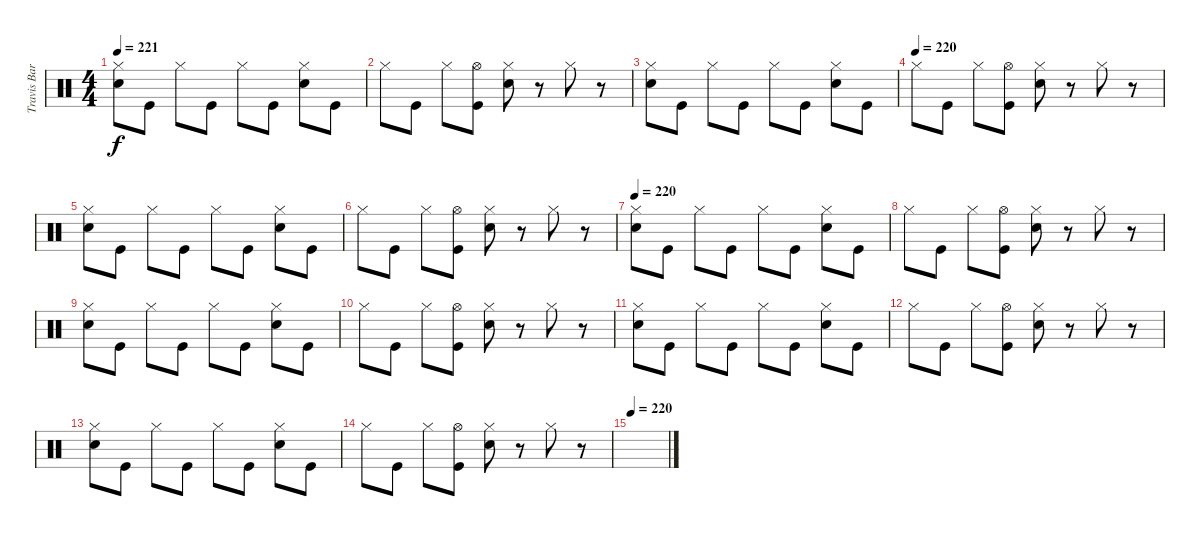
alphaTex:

\track ("Travis Barker" "Travis Bar") {instrument percussion}
\staff {score}
\articulation defaults
\ts (4 4)
\tempo 221
\clef neutral
\ks c
("Electric Snare (hit)" "Hi-Hat (closed)").8{dy f} "Kick (hit)".8 "Hi-Hat (closed)".8 "Kick (hit)".8 "Hi-Hat (closed)".8 "Kick (hit)".8 ("Electric Snare (hit)" "Hi-Hat (closed)").8 "Kick (hit)".8 |
"Hi-Hat (closed)".8 "Kick (hit)".8 "Hi-Hat (closed)".8 ("Kick (hit)" "Hi-Hat (open)").8 ("Electric Snare (hit)" "Hi-Hat (closed)").8 r.8 "Hi-Hat (closed)".8 r.8 |
("Electric Snare (hit)" "Hi-Hat (closed)").8 "Kick (hit)".8 "Hi-Hat (closed)".8 "Kick (hit)".8 "Hi-Hat (closed)".8 "Kick (hit)".8 ("Electric Snare (hit)" "Hi-Hat (closed)").8 "Kick (hit)".8 |
\tempo (220)
"Hi-Hat (closed)".8 "Kick (hit)".8 "Hi-Hat (closed)".8 ("Kick (hit)" "Hi-Hat (open)").8 ("Electric Snare (hit)" "Hi-Hat (closed)").8 r.8 "Hi-Hat (closed)".8 r.8 |
("Electric Snare (hit)" "Hi-Hat (closed)").8 "Kick (hit)".8 "Hi-Hat (closed)".8 "Kick (hit)".8 "Hi-Hat (closed)".8 "Kick (hit)".8 ("Electric Snare (hit)" "Hi-Hat (closed)").8 "Kick (hit)".8 |
"Hi-Hat (closed)".8 "Kick (hit)".8 "Hi-Hat (closed)".8 ("Kick (hit)" "Hi-Hat (open)").8 ("Electric Snare (hit)" "Hi-Hat (closed)").8 r.8 "Hi-Hat (closed)".8 r.8 |
\tempo 220
("Electric Snare (hit)" "Hi-Hat (closed)").8 "Kick (hit)".8 "Hi-Hat (closed)".8 "Kick (hit)".8 "Hi-Hat (closed)".8 "Kick (hit)".8 ("Electric Snare (hit)" "Hi-Hat (closed)").8 "Kick (hit)".8 |
"Hi-Hat (closed)".8 "Kick (hit)".8 "Hi-Hat (closed)".8 ("Kick (hit)" "Hi-Hat (open)").8 ("Electric Snare (hit)" "Hi-Hat (closed)").8 r.8 "Hi-Hat (closed)".8 r.8 |
("Electric Snare (hit)" "Hi-Hat (closed)").8 "Kick (hit)".8 "Hi-Hat (closed)".8 "Kick (hit)".8 "Hi-Hat (closed)".8 "Kick (hit)".8 ("Electric Snare (hit)" "Hi-Hat (closed)").8 "Kick (hit)".8 |
"Hi-Hat (closed)".8 "Kick (hit)".8 "Hi-Hat (closed)".8 ("Kick (hit)" "Hi-Hat (open)").8 ("Electric Snare (hit)" "Hi-Hat (closed)").8 r.8 "Hi-Hat (closed)".8 r.8 |
("Electric Snare (hit)" "Hi-Hat (closed)").8 "Kick (hit)".8 "Hi-Hat (closed)".8 "Kick (hit)".8 "Hi-Hat (closed)".8 "Kick (hit)".8 ("Electric Snare (hit)" "Hi-Hat (closed)").8 "Kick (hit)".8 |
"Hi-Hat (closed)".8 "Kick (hit)".8 "Hi-Hat (closed)".8 ("Kick (hit)" "Hi-Hat (open)").8 ("Electric Snare (hit)" "Hi-Hat (closed)").8 r.8 "Hi-Hat (closed)".8 r.8 |
("Electric Snare (hit)" "Hi-Hat (closed)").8 "Kick (hit)".8 "Hi-Hat (closed)".8 "Kick (hit)".8 "Hi-Hat (closed)".8 "Kick (hit)".8 ("Electric Snare (hit)" "Hi-Hat (closed)").8 "Kick (hit)".8 |
"Hi-Hat (closed)".8 "Kick (hit)".8 "Hi-Hat (closed)".8 ("Kick (hit)" "Hi-Hat (open)").8 ("Electric Snare (hit)" "Hi-Hat (closed)").8 r.8 "Hi-Hat (closed)".8 r.8 |
\tempo 220
